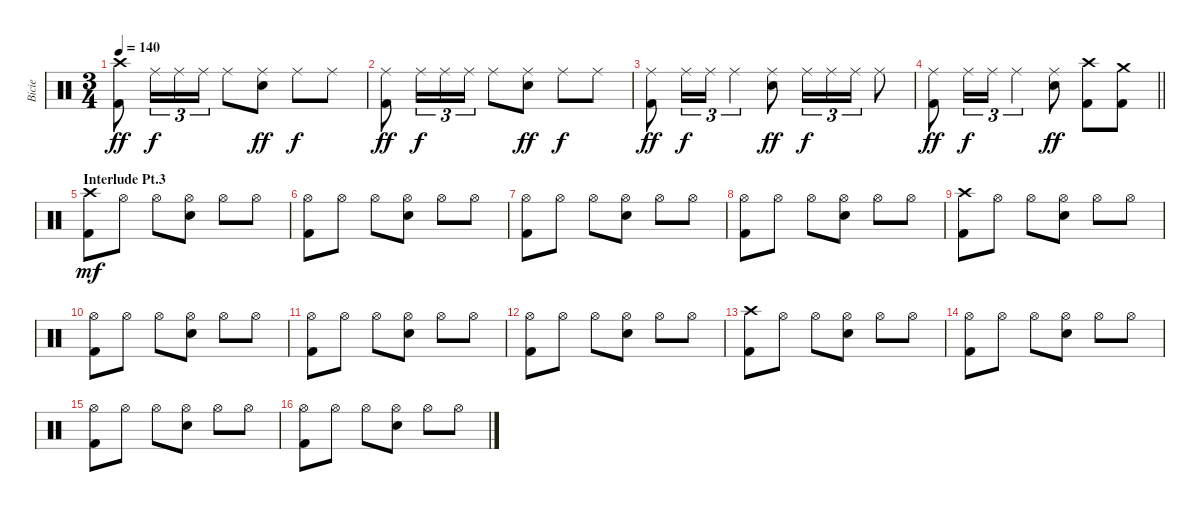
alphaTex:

\track ("Bicie" "Bicie") {instrument percussion}
\staff {score}
\articulation defaults
\ts (3 4)
\tempo 140
\clef neutral
\ks c
("Crash high (hit)" "Kick (hit) 2").8{dy ff} "Ride (middle)".16{tu (3 2) dy f} "Ride (middle)".16{tu (3 2)} "Ride (middle)".16{tu (3 2)} "Ride (middle)".8 ("Ride (middle)" "Snare (hit) 2").8{dy ff} "Ride (middle)".8{dy f} "Ride (middle)".8 |
("Ride (middle)" "Kick (hit) 2").8{dy ff} "Ride (middle)".16{tu (3 2) dy f} "Ride (middle)".16{tu (3 2)} "Ride (middle)".16{tu (3 2)} "Ride (middle)".8 ("Ride (middle)" "Snare (hit) 2").8{dy ff} "Ride (middle)".8{dy f} "Ride (middle)".8 |
("Ride (middle)" "Kick (hit) 2").8{dy ff} "Ride (middle)".16{tu (3 2) dy f} "Ride (middle)".16{tu (3 2)} "Ride (middle)".4{tu (3 2)} ("Ride (middle)" "Snare (hit) 2").8{dy ff} "Ride (middle)".16{tu (3 2) dy f} "Ride (middle)".16{tu (3 2)} "Ride (middle)".16{tu (3 2)} "Ride (middle)".8 |
\barLineRight lightlight
("Ride (middle)" "Kick (hit) 2").8{dy ff} "Ride (middle)".16{tu (3 2) dy f} "Ride (middle)".16{tu (3 2)} "Ride (middle)".4{tu (3 2)} ("Ride (middle)" "Snare (hit) 2").8{dy ff} ("Crash high (hit)" "Kick (hit) 2").8 ("Crash medium (hit)" "Kick (hit) 2").8 |
\section ("" "Interlude Pt.3")
("Crash high (hit)" "Kick (hit) 2").8{dy mf} "Hi-Hat (open)".8 "Hi-Hat (open)".8 ("Hi-Hat (open)" "Snare (hit) 2").8 "Hi-Hat (open)".8 "Hi-Hat (open)".8 |
("Hi-Hat (open)" "Kick (hit) 2").8 "Hi-Hat (open)".8 "Hi-Hat (open)".8 ("Hi-Hat (open)" "Snare (hit) 2").8 "Hi-Hat (open)".8 "Hi-Hat (open)".8 |
("Hi-Hat (open)" "Kick (hit) 2").8 "Hi-Hat (open)".8 "Hi-Hat (open)".8 ("Hi-Hat (open)" "Snare (hit) 2").8 "Hi-Hat (open)".8 "Hi-Hat (open)".8 |
("Hi-Hat (open)" "Kick (hit) 2").8 "Hi-Hat (open)".8 "Hi-Hat (open)".8 ("Hi-Hat (open)" "Snare (hit) 2").8 "Hi-Hat (open)".8 "Hi-Hat (open)".8 |
("Crash high (hit)" "Kick (hit) 2").8 "Hi-Hat (open)".8 "Hi-Hat (open)".8 ("Hi-Hat (open)" "Snare (hit) 2").8 "Hi-Hat (open)".8 "Hi-Hat (open)".8 |
("Hi-Hat (open)" "Kick (hit) 2").8 "Hi-Hat (open)".8 "Hi-Hat (open)".8 ("Hi-Hat (open)" "Snare (hit) 2").8 "Hi-Hat (open)".8 "Hi-Hat (open)".8 |
("Hi-Hat (open)" "Kick (hit) 2").8 "Hi-Hat (open)".8 "Hi-Hat (open)".8 ("Hi-Hat (open)" "Snare (hit) 2").8 "Hi-Hat (open)".8 "Hi-Hat (open)".8 |
("Hi-Hat (open)" "Kick (hit) 2").8 "Hi-Hat (open)".8 "Hi-Hat (open)".8 ("Hi-Hat (open)" "Snare (hit) 2").8 "Hi-Hat (open)".8 "Hi-Hat (open)".8 |
("Crash high (hit)" "Kick (hit) 2").8 "Hi-Hat (open)".8 "Hi-Hat (open)".8 ("Hi-Hat (open)" "Snare (hit) 2").8 "Hi-Hat (open)".8 "Hi-Hat (open)".8 |
("Hi-Hat (open)" "Kick (hit) 2").8 "Hi-Hat (open)".8 "Hi-Hat (open)".8 ("Hi-Hat (open)" "Snare (hit) 2").8 "Hi-Hat (open)".8 "Hi-Hat (open)".8 |
("Hi-Hat (open)" "Kick (hit) 2").8 "Hi-Hat (open)".8 "Hi-Hat (open)".8 ("Hi-Hat (open)" "Snare (hit) 2").8 "Hi-Hat (open)".8 "Hi-Hat (open)".8 |
("Hi-Hat (open)" "Kick (hit) 2").8 "Hi-Hat (open)".8 "Hi-Hat (open)".8 ("Hi-Hat (open)" "Snare (hit) 2").8 "Hi-Hat (open)".8 "Hi-Hat (open)".8
